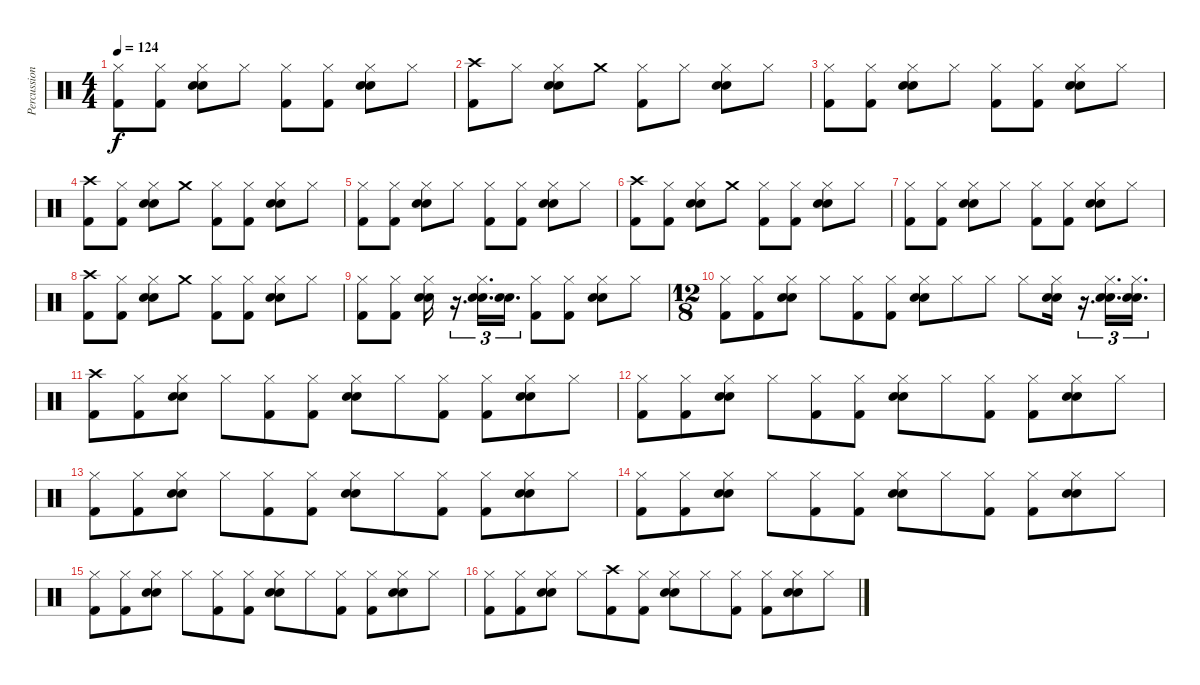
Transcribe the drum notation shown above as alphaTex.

\track ("Percussion" "Percussion") {instrument percussion}
\staff {score}
\articulation defaults
\ts (4 4)
\tempo 124
\clef neutral
\ks c
("Hi-Hat (closed)" "Kick (hit) 2").8{dy f} ("Hi-Hat (closed)" "Kick (hit) 2").8 ("Hi-Hat (closed)" "Snare (hit) 2" "Electric Snare (hit)").8 "Hi-Hat (closed)".8 ("Hi-Hat (closed)" "Kick (hit) 2").8 ("Hi-Hat (closed)" "Kick (hit) 2").8 ("Hi-Hat (closed)" "Snare (hit) 2" "Electric Snare (hit)").8 "Hi-Hat (closed)".8 |
("Crash high (hit)" "Kick (hit) 2").8 "Hi-Hat (closed)".8 ("Hi-Hat (closed)" "Snare (hit) 2" "Electric Snare (hit)").8 "Crash medium (hit)".8 ("Hi-Hat (closed)" "Kick (hit) 2").8 "Hi-Hat (closed)".8 ("Hi-Hat (closed)" "Snare (hit) 2" "Electric Snare (hit)").8 "Hi-Hat (closed)".8 |
("Hi-Hat (closed)" "Kick (hit) 2").8 ("Hi-Hat (closed)" "Kick (hit) 2").8 ("Hi-Hat (closed)" "Snare (hit) 2" "Electric Snare (hit)").8 "Hi-Hat (closed)".8 ("Hi-Hat (closed)" "Kick (hit) 2").8 ("Hi-Hat (closed)" "Kick (hit) 2").8 ("Hi-Hat (closed)" "Snare (hit) 2" "Electric Snare (hit)").8 "Hi-Hat (closed)".8 |
("Crash high (hit)" "Kick (hit) 2").8 ("Hi-Hat (closed)" "Kick (hit) 2").8 ("Hi-Hat (closed)" "Snare (hit) 2" "Electric Snare (hit)").8 "Crash medium (hit)".8 ("Hi-Hat (closed)" "Kick (hit) 2").8 ("Hi-Hat (closed)" "Kick (hit) 2").8 ("Hi-Hat (closed)" "Snare (hit) 2" "Electric Snare (hit)").8 "Hi-Hat (closed)".8 |
("Hi-Hat (closed)" "Kick (hit) 2").8 ("Hi-Hat (closed)" "Kick (hit) 2").8 ("Hi-Hat (closed)" "Snare (hit) 2" "Electric Snare (hit)").8 "Hi-Hat (closed)".8 ("Hi-Hat (closed)" "Kick (hit) 2").8 ("Hi-Hat (closed)" "Kick (hit) 2").8 ("Hi-Hat (closed)" "Snare (hit) 2" "Electric Snare (hit)").8 "Hi-Hat (closed)".8 |
("Crash high (hit)" "Kick (hit) 2").8 ("Hi-Hat (closed)" "Kick (hit) 2").8 ("Hi-Hat (closed)" "Snare (hit) 2" "Electric Snare (hit)").8 "Crash medium (hit)".8 ("Hi-Hat (closed)" "Kick (hit) 2").8 ("Hi-Hat (closed)" "Kick (hit) 2").8 ("Hi-Hat (closed)" "Snare (hit) 2" "Electric Snare (hit)").8 "Hi-Hat (closed)".8 |
("Hi-Hat (closed)" "Kick (hit) 2").8 ("Hi-Hat (closed)" "Kick (hit) 2").8 ("Hi-Hat (closed)" "Snare (hit) 2" "Electric Snare (hit)").8 "Hi-Hat (closed)".8 ("Hi-Hat (closed)" "Kick (hit) 2").8 ("Hi-Hat (closed)" "Kick (hit) 2").8 ("Hi-Hat (closed)" "Snare (hit) 2" "Electric Snare (hit)").8 "Hi-Hat (closed)".8 |
("Crash high (hit)" "Kick (hit) 2").8 ("Hi-Hat (closed)" "Kick (hit) 2").8 ("Hi-Hat (closed)" "Snare (hit) 2" "Electric Snare (hit)").8 "Crash medium (hit)".8 ("Hi-Hat (closed)" "Kick (hit) 2").8 ("Hi-Hat (closed)" "Kick (hit) 2").8 ("Hi-Hat (closed)" "Snare (hit) 2" "Electric Snare (hit)").8 "Hi-Hat (closed)".8 |
("Hi-Hat (closed)" "Kick (hit) 2").8 ("Hi-Hat (closed)" "Kick (hit) 2").8 ("Hi-Hat (closed)" "Snare (hit) 2" "Electric Snare (hit)").16 r.16{d tu (3 2)} ("Hi-Hat (closed)" "Snare (hit) 2" "Electric Snare (hit)").16{d tu (3 2)} ("Snare (hit) 2" "Electric Snare (hit)").16{d tu (3 2)} ("Hi-Hat (closed)" "Kick (hit) 2").8 ("Hi-Hat (closed)" "Kick (hit) 2").8 ("Hi-Hat (closed)" "Snare (hit) 2" "Electric Snare (hit)").8 "Hi-Hat (closed)".8 |
\ts (12 8)
("Hi-Hat (closed)" "Kick (hit) 2").8 ("Hi-Hat (closed)" "Kick (hit) 2").8 ("Hi-Hat (closed)" "Snare (hit) 2" "Electric Snare (hit)").8 "Hi-Hat (closed)".8 ("Hi-Hat (closed)" "Kick (hit) 2").8 ("Hi-Hat (closed)" "Kick (hit) 2").8 ("Hi-Hat (closed)" "Snare (hit) 2" "Electric Snare (hit)").8 "Hi-Hat (closed)".8 "Hi-Hat (closed)".8 "Hi-Hat (closed)".8 ("Hi-Hat (closed)" "Snare (hit) 2" "Electric Snare (hit)").16 r.16{d tu (3 2)} ("Hi-Hat (closed)" "Snare (hit) 2" "Electric Snare (hit)").16{d tu (3 2)} ("Hi-Hat (closed)" "Snare (hit) 2" "Electric Snare (hit)").16{d tu (3 2)} |
("Crash high (hit)" "Kick (hit) 2").8 ("Hi-Hat (closed)" "Kick (hit) 2").8 ("Hi-Hat (closed)" "Snare (hit) 2" "Electric Snare (hit)").8 "Hi-Hat (closed)".8 ("Hi-Hat (closed)" "Kick (hit) 2").8 ("Hi-Hat (closed)" "Kick (hit) 2").8 ("Hi-Hat (closed)" "Snare (hit) 2" "Electric Snare (hit)").8 "Hi-Hat (closed)".8 ("Hi-Hat (closed)" "Kick (hit) 2").8 ("Hi-Hat (closed)" "Kick (hit) 2").8 ("Hi-Hat (closed)" "Snare (hit) 2" "Electric Snare (hit)").8 "Hi-Hat (closed)".8 |
("Hi-Hat (closed)" "Kick (hit) 2").8 ("Hi-Hat (closed)" "Kick (hit) 2").8 ("Hi-Hat (closed)" "Snare (hit) 2" "Electric Snare (hit)").8 "Hi-Hat (closed)".8 ("Hi-Hat (closed)" "Kick (hit) 2").8 ("Hi-Hat (closed)" "Kick (hit) 2").8 ("Hi-Hat (closed)" "Snare (hit) 2" "Electric Snare (hit)").8 "Hi-Hat (closed)".8 ("Hi-Hat (closed)" "Kick (hit) 2").8 ("Hi-Hat (closed)" "Kick (hit) 2").8 ("Hi-Hat (closed)" "Snare (hit) 2" "Electric Snare (hit)").8 "Hi-Hat (closed)".8 |
("Hi-Hat (closed)" "Kick (hit) 2").8 ("Hi-Hat (closed)" "Kick (hit) 2").8 ("Hi-Hat (closed)" "Snare (hit) 2" "Electric Snare (hit)").8 "Hi-Hat (closed)".8 ("Hi-Hat (closed)" "Kick (hit) 2").8 ("Hi-Hat (closed)" "Kick (hit) 2").8 ("Hi-Hat (closed)" "Snare (hit) 2" "Electric Snare (hit)").8 "Hi-Hat (closed)".8 ("Hi-Hat (closed)" "Kick (hit) 2").8 ("Hi-Hat (closed)" "Kick (hit) 2").8 ("Hi-Hat (closed)" "Snare (hit) 2" "Electric Snare (hit)").8 "Hi-Hat (closed)".8 |
("Hi-Hat (closed)" "Kick (hit) 2").8 ("Hi-Hat (closed)" "Kick (hit) 2").8 ("Hi-Hat (closed)" "Snare (hit) 2" "Electric Snare (hit)").8 "Hi-Hat (closed)".8 ("Hi-Hat (closed)" "Kick (hit) 2").8 ("Hi-Hat (closed)" "Kick (hit) 2").8 ("Hi-Hat (closed)" "Snare (hit) 2" "Electric Snare (hit)").8 "Hi-Hat (closed)".8 ("Hi-Hat (closed)" "Kick (hit) 2").8 ("Hi-Hat (closed)" "Kick (hit) 2").8 ("Hi-Hat (closed)" "Snare (hit) 2" "Electric Snare (hit)").8 "Hi-Hat (closed)".8 |
("Hi-Hat (closed)" "Kick (hit) 2").8 ("Hi-Hat (closed)" "Kick (hit) 2").8 ("Hi-Hat (closed)" "Snare (hit) 2" "Electric Snare (hit)").8 "Hi-Hat (closed)".8 ("Hi-Hat (closed)" "Kick (hit) 2").8 ("Hi-Hat (closed)" "Kick (hit) 2").8 ("Hi-Hat (closed)" "Snare (hit) 2" "Electric Snare (hit)").8 "Hi-Hat (closed)".8 ("Hi-Hat (closed)" "Kick (hit) 2").8 ("Hi-Hat (closed)" "Kick (hit) 2").8 ("Hi-Hat (closed)" "Snare (hit) 2" "Electric Snare (hit)").8 "Hi-Hat (closed)".8 |
("Hi-Hat (closed)" "Kick (hit) 2").8 ("Hi-Hat (closed)" "Kick (hit) 2").8 ("Hi-Hat (closed)" "Snare (hit) 2" "Electric Snare (hit)").8 "Hi-Hat (closed)".8 ("Crash high (hit)" "Kick (hit) 2").8 ("Hi-Hat (closed)" "Kick (hit) 2").8 ("Hi-Hat (closed)" "Snare (hit) 2" "Electric Snare (hit)").8 "Hi-Hat (closed)".8 ("Hi-Hat (closed)" "Kick (hit) 2").8 ("Hi-Hat (closed)" "Kick (hit) 2").8 ("Hi-Hat (closed)" "Snare (hit) 2" "Electric Snare (hit)").8 "Hi-Hat (closed)".8
